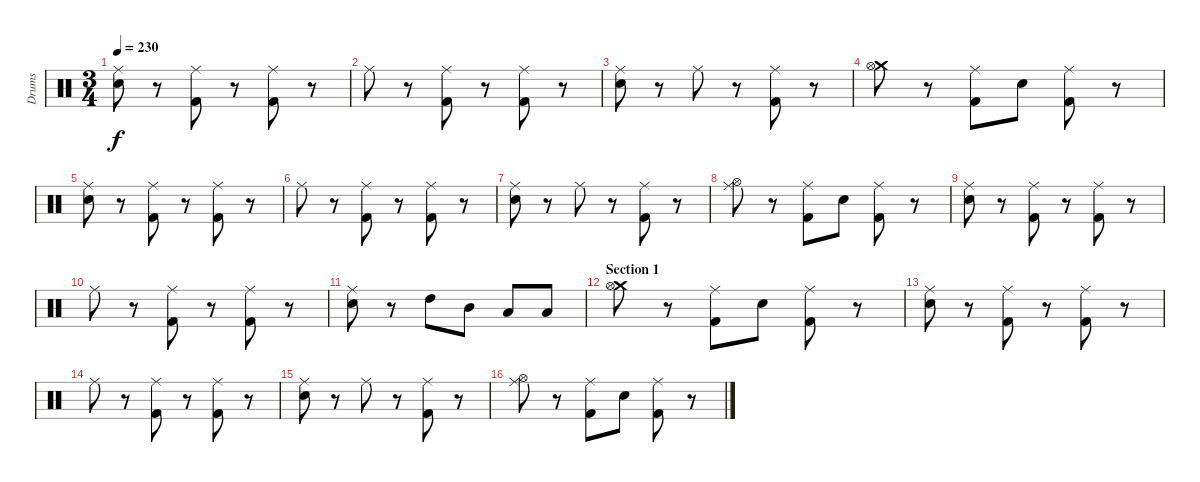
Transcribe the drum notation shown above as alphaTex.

\track ("Drums" "Drums") {instrument percussion}
\staff {score}
\articulation defaults
\ts (3 4)
\tempo 230
\clef neutral
\ks c
("Ride (middle)" "Electric Snare (hit)").8{dy f} r.8 ("Ride (middle)" "Kick (hit) 2").8 r.8 ("Ride (middle)" "Kick (hit) 2").8 r.8 |
"Ride (middle)".8 r.8 ("Ride (middle)" "Kick (hit) 2").8 r.8 ("Ride (middle)" "Kick (hit) 2").8 r.8 |
("Ride (middle)" "Electric Snare (hit)").8 r.8 "Ride (middle)".8 r.8 ("Ride (middle)" "Kick (hit) 2").8 r.8 |
("Crash medium (hit)" "Hi-Hat (open)").8 r.8 ("Ride (middle)" "Kick (hit) 2").8 "Electric Snare (hit)".8 ("Ride (middle)" "Kick (hit) 2").8 r.8 |
("Ride (middle)" "Electric Snare (hit)").8 r.8 ("Ride (middle)" "Kick (hit) 2").8 r.8 ("Ride (middle)" "Kick (hit) 2").8 r.8 |
"Ride (middle)".8 r.8 ("Ride (middle)" "Kick (hit) 2").8 r.8 ("Ride (middle)" "Kick (hit) 2").8 r.8 |
("Ride (middle)" "Electric Snare (hit)").8 r.8 "Ride (middle)".8 r.8 ("Ride (middle)" "Kick (hit) 2").8 r.8 |
("Ride (middle)" "Hi-Hat (open)").8 r.8 ("Ride (middle)" "Kick (hit) 2").8 "Electric Snare (hit)".8 ("Ride (middle)" "Kick (hit) 2").8 r.8 |
("Ride (middle)" "Electric Snare (hit)").8 r.8 ("Ride (middle)" "Kick (hit) 2").8 r.8 ("Ride (middle)" "Kick (hit) 2").8 r.8 |
"Ride (middle)".8 r.8 ("Ride (middle)" "Kick (hit) 2").8 r.8 ("Ride (middle)" "Kick (hit) 2").8 r.8 |
("Ride (middle)" "Electric Snare (hit)").8 r.8 "High Tom (hit)".8 "Mid Tom (hit)".8 "Low Tom (hit)".8 "Low Tom (hit)".8 |
\section ("" "Section 1")
("Crash medium (hit)" "Hi-Hat (open)").8 r.8 ("Ride (middle)" "Kick (hit) 2").8 "Electric Snare (hit)".8 ("Ride (middle)" "Kick (hit) 2").8 r.8 |
("Ride (middle)" "Electric Snare (hit)").8 r.8 ("Ride (middle)" "Kick (hit) 2").8 r.8 ("Ride (middle)" "Kick (hit) 2").8 r.8 |
"Ride (middle)".8 r.8 ("Ride (middle)" "Kick (hit) 2").8 r.8 ("Ride (middle)" "Kick (hit) 2").8 r.8 |
("Ride (middle)" "Electric Snare (hit)").8 r.8 "Ride (middle)".8 r.8 ("Ride (middle)" "Kick (hit) 2").8 r.8 |
("Ride (middle)" "Hi-Hat (open)").8 r.8 ("Ride (middle)" "Kick (hit) 2").8 "Electric Snare (hit)".8 ("Ride (middle)" "Kick (hit) 2").8 r.8
